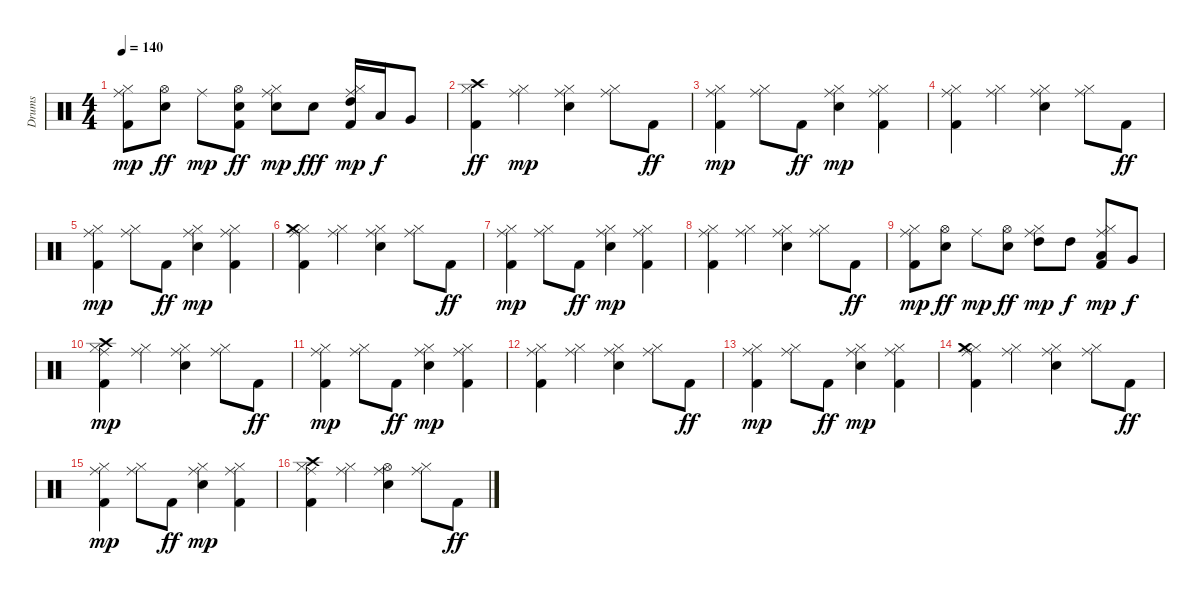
\track ("Drums" "Drums") {instrument percussion}
\staff {score}
\articulation defaults
\ts (4 4)
\tempo 140
\clef neutral
\ks c
("Kick (hit) 2" "Hi-Hat (closed)" "Ride (middle)").8{dy mp} ("Snare (hit) 2" "Hi-Hat (open)").8{dy ff} "Ride (middle)".8{dy mp} ("Kick (hit) 2" "Snare (hit) 2" "Hi-Hat (open)").8{dy ff} ("Snare (hit) 2" "Hi-Hat (closed)" "Ride (middle)").8{dy mp} "Snare (hit) 2".8{dy fff} ("Kick (hit) 2" "Hi-Hat (closed)" "High Tom (hit)" "Ride (middle)").16{dy mp} "Low Tom (hit)".16{dy f} "Very Low Tom (hit)".8 |
("Kick (hit) 2" "Hi-Hat (closed)" "Crash high (hit)").4{dy ff} ("Hi-Hat (closed)" "Ride (middle)").4{dy mp} ("Snare (hit) 2" "Hi-Hat (closed)" "Ride (middle)").4 ("Hi-Hat (closed)" "Ride (middle)").8 "Kick (hit) 2".8{dy ff} |
("Kick (hit) 2" "Hi-Hat (closed)" "Ride (middle)").4{dy mp} ("Hi-Hat (closed)" "Ride (middle)").8 "Kick (hit) 2".8{dy ff} ("Snare (hit) 2" "Hi-Hat (closed)" "Ride (middle)").4{dy mp} ("Kick (hit) 2" "Hi-Hat (closed)" "Ride (middle)").4 |
("Kick (hit) 2" "Hi-Hat (closed)" "Ride (middle)").4 ("Hi-Hat (closed)" "Ride (middle)").4 ("Snare (hit) 2" "Hi-Hat (closed)" "Ride (middle)").4 ("Hi-Hat (closed)" "Ride (middle)").8 "Kick (hit) 2".8{dy ff} |
("Kick (hit) 2" "Hi-Hat (closed)" "Ride (middle)").4{dy mp} ("Hi-Hat (closed)" "Ride (middle)").8 "Kick (hit) 2".8{dy ff} ("Snare (hit) 2" "Hi-Hat (closed)" "Ride (middle)").4{dy mp} ("Kick (hit) 2" "Hi-Hat (closed)" "Ride (middle)").4 |
("Kick (hit) 2" "Hi-Hat (closed)" "Crash medium (hit)" "Ride (middle)").4 ("Hi-Hat (closed)" "Ride (middle)").4 ("Snare (hit) 2" "Hi-Hat (closed)" "Ride (middle)").4 ("Hi-Hat (closed)" "Ride (middle)").8 "Kick (hit) 2".8{dy ff} |
("Kick (hit) 2" "Hi-Hat (closed)" "Ride (middle)").4{dy mp} ("Hi-Hat (closed)" "Ride (middle)").8 "Kick (hit) 2".8{dy ff} ("Snare (hit) 2" "Hi-Hat (closed)" "Ride (middle)").4{dy mp} ("Kick (hit) 2" "Hi-Hat (closed)" "Ride (middle)").4 |
("Kick (hit) 2" "Hi-Hat (closed)" "Ride (middle)").4 ("Hi-Hat (closed)" "Ride (middle)").4 ("Snare (hit) 2" "Hi-Hat (closed)" "Ride (middle)").4 ("Hi-Hat (closed)" "Ride (middle)").8 "Kick (hit) 2".8{dy ff} |
("Kick (hit) 2" "Hi-Hat (closed)" "Ride (middle)").8{dy mp} ("Snare (hit) 2" "Hi-Hat (open)").8{dy ff} "Ride (middle)".8{dy mp} ("Snare (hit) 2" "Hi-Hat (open)").8{dy ff} ("Hi-Hat (closed)" "High Tom (hit)" "Ride (middle)").8{dy mp} "High Tom (hit)".8{dy f} ("Kick (hit) 2" "Hi-Hat (closed)" "Low Tom (hit)" "Ride (middle)").8{dy mp} "Very Low Tom (hit)".8{dy f} |
("Kick (hit) 2" "Hi-Hat (closed)" "Crash high (hit)" "Ride (middle)").4{dy mp} ("Hi-Hat (closed)" "Ride (middle)").4 ("Snare (hit) 2" "Hi-Hat (closed)" "Ride (middle)").4 ("Hi-Hat (closed)" "Ride (middle)").8 "Kick (hit) 2".8{dy ff} |
("Kick (hit) 2" "Hi-Hat (closed)" "Ride (middle)").4{dy mp} ("Hi-Hat (closed)" "Ride (middle)").8 "Kick (hit) 2".8{dy ff} ("Snare (hit) 2" "Hi-Hat (closed)" "Ride (middle)").4{dy mp} ("Kick (hit) 2" "Hi-Hat (closed)" "Ride (middle)").4 |
("Kick (hit) 2" "Hi-Hat (closed)" "Ride (middle)").4 ("Hi-Hat (closed)" "Ride (middle)").4 ("Snare (hit) 2" "Hi-Hat (closed)" "Ride (middle)").4 ("Hi-Hat (closed)" "Ride (middle)").8 "Kick (hit) 2".8{dy ff} |
("Kick (hit) 2" "Hi-Hat (closed)" "Ride (middle)").4{dy mp} ("Hi-Hat (closed)" "Ride (middle)").8 "Kick (hit) 2".8{dy ff} ("Snare (hit) 2" "Hi-Hat (closed)" "Ride (middle)").4{dy mp} ("Kick (hit) 2" "Hi-Hat (closed)" "Ride (middle)").4 |
("Kick (hit) 2" "Hi-Hat (closed)" "Crash medium (hit)" "Ride (middle)").4 ("Hi-Hat (closed)" "Ride (middle)").4 ("Snare (hit) 2" "Hi-Hat (closed)" "Ride (middle)").4 ("Hi-Hat (closed)" "Ride (middle)").8 "Kick (hit) 2".8{dy ff} |
("Kick (hit) 2" "Hi-Hat (closed)" "Ride (middle)").4{dy mp} ("Hi-Hat (closed)" "Ride (middle)").8 "Kick (hit) 2".8{dy ff} ("Snare (hit) 2" "Hi-Hat (closed)" "Ride (middle)").4{dy mp} ("Kick (hit) 2" "Hi-Hat (closed)" "Ride (middle)").4 |
("Kick (hit) 2" "Hi-Hat (closed)" "Crash high (hit)" "Ride (middle)").4 ("Hi-Hat (closed)" "Ride (middle)").4 ("Snare (hit) 2" "Hi-Hat (open)" "Ride (middle)").4 ("Hi-Hat (closed)" "Ride (middle)").8 "Kick (hit) 2".8{dy ff}
